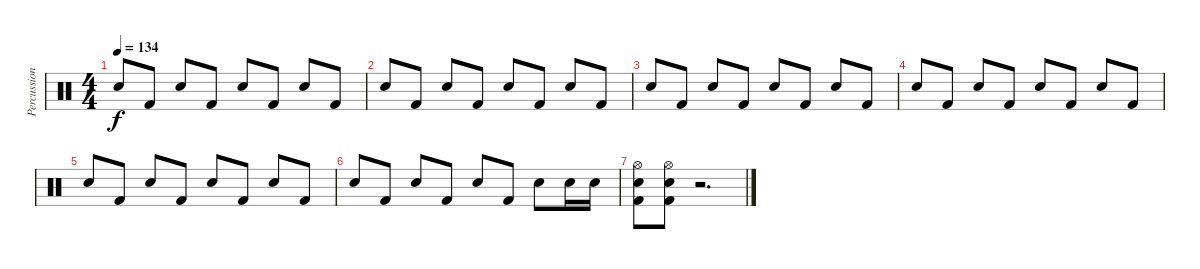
\track ("Percussion" "Percussion") {instrument percussion}
\staff {score}
\articulation defaults
\ts (4 4)
\tempo 134
\clef neutral
\ks c "Electric Snare (hit)".8{dy f} "Kick (hit) 2".8 "Electric Snare (hit)".8 "Kick (hit) 2".8 "Electric Snare (hit)".8 "Kick (hit) 2".8 "Electric Snare (hit)".8 "Kick (hit) 2".8
|
"Electric Snare (hit)".8 "Kick (hit) 2".8 "Electric Snare (hit)".8 "Kick (hit) 2".8 "Electric Snare (hit)".8 "Kick (hit) 2".8 "Electric Snare (hit)".8 "Kick (hit) 2".8 |
"Electric Snare (hit)".8 "Kick (hit) 2".8 "Electric Snare (hit)".8 "Kick (hit) 2".8 "Electric Snare (hit)".8 "Kick (hit) 2".8 "Electric Snare (hit)".8 "Kick (hit) 2".8 |
"Electric Snare (hit)".8 "Kick (hit) 2".8 "Electric Snare (hit)".8 "Kick (hit) 2".8 "Electric Snare (hit)".8 "Kick (hit) 2".8 "Electric Snare (hit)".8 "Kick (hit) 2".8 |
"Electric Snare (hit)".8 "Kick (hit) 2".8 "Electric Snare (hit)".8 "Kick (hit) 2".8 "Electric Snare (hit)".8 "Kick (hit) 2".8 "Electric Snare (hit)".8 "Kick (hit) 2".8 |
"Electric Snare (hit)".8 "Kick (hit) 2".8 "Electric Snare (hit)".8 "Kick (hit) 2".8 "Electric Snare (hit)".8 "Kick (hit) 2".8 "Electric Snare (hit)".8 "Electric Snare (hit)".16 "Electric Snare (hit)".16 |
("Hi-Hat (open)" "Electric Snare (hit)" "Kick (hit) 2").8 ("Hi-Hat (open)" "Electric Snare (hit)" "Kick (hit) 2").8 r.2{d}
